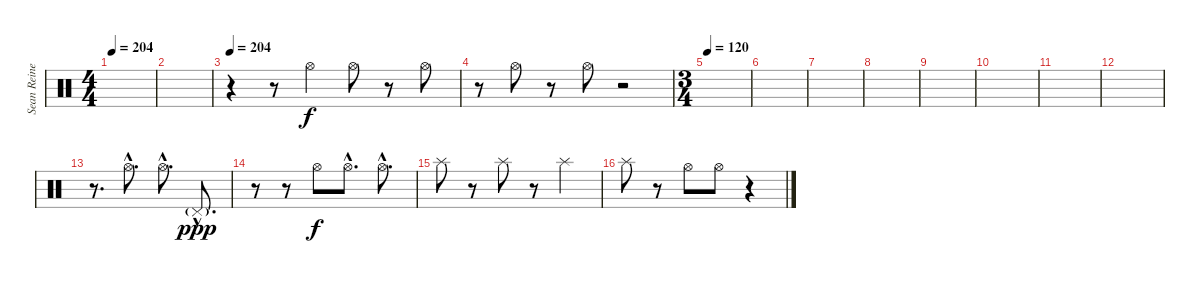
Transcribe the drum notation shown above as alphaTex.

\track ("Sean Reinert" "Sean Reine") {instrument percussion}
\staff {score}
\articulation defaults
\ts (4 4)
\tempo 204
\clef neutral
\ks c
|
|
\tempo 204
r.4 r.8 "Hi-Hat (open)".4 "Hi-Hat (open)".8 r.8 "Hi-Hat (open)".8 |
r.8 "Hi-Hat (open)".8 r.8 "Hi-Hat (open)".8 r.2 |
\ts (3 4)
\tempo 120
|
|
|
|
|
|
|
|
r.8{d} "Hi-Hat (open)"{hac}.8{d} "Hi-Hat (open)"{hac}.8{d} "Pedal Hi-Hat (hit)"{g hac}.8{d dy ppp} |
r.8 r.8 "Hi-Hat (open)".8{dy f} "Hi-Hat (open)"{hac}.8{d} "Hi-Hat (open)"{hac}.8{d} |
"Splash (hit)".8 r.8 "Splash (hit)".8 r.8 "Splash (hit)".4 |
"Splash (hit)".8 r.8 "Hi-Hat (open)".8 "Hi-Hat (open)".8 r.4
